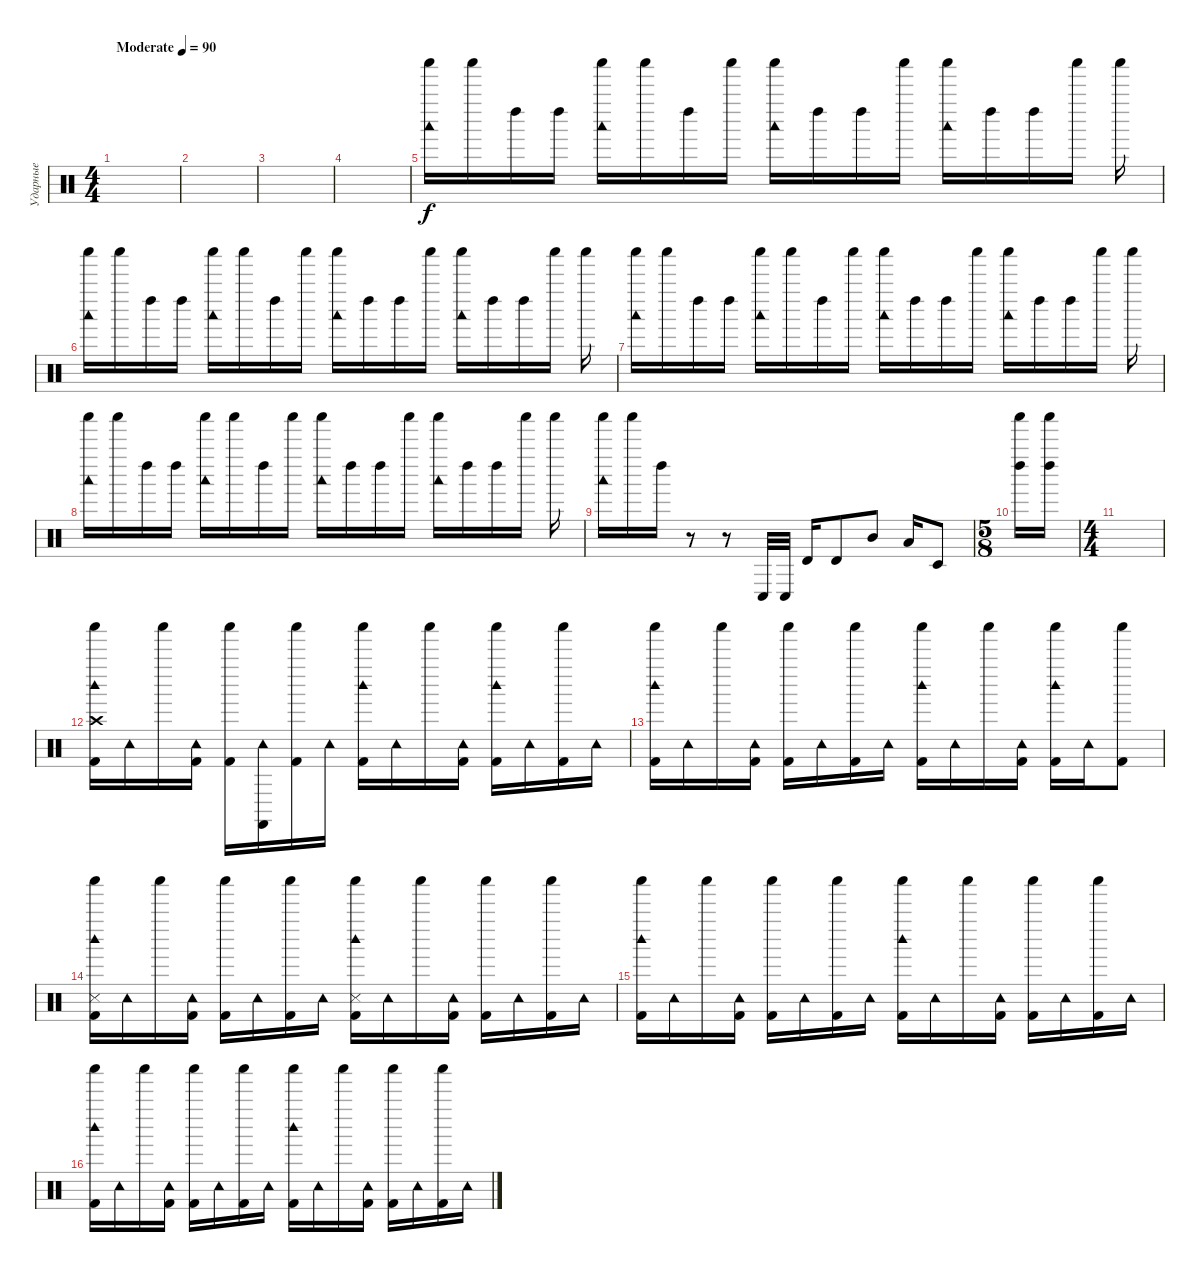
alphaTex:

\track ("Ударные" "Ударные") {instrument percussion}
\staff {score}
\articulation defaults
\ts (4 4)
\tempo (90 "Moderate")
\clef neutral
\ks c
|
|
|
|
("Woodblock low (hit)" "Shaker (hit)").16 "Shaker (hit)".16 "Left Maraca (hit)".16 "Left Maraca (hit)".16 ("Woodblock low (hit)" "Shaker (hit)").16 "Shaker (hit)".16 "Left Maraca (hit)".16 "Shaker (hit)".16 ("Woodblock low (hit)" "Shaker (hit)").16 "Left Maraca (hit)".16 "Left Maraca (hit)".16 "Shaker (hit)".16 ("Woodblock low (hit)" "Shaker (hit)").16 "Left Maraca (hit)".16 "Left Maraca (hit)".16 "Shaker (hit)".16 "Shaker (hit)".16 |
("Woodblock low (hit)" "Shaker (hit)").16 "Shaker (hit)".16 "Left Maraca (hit)".16 "Left Maraca (hit)".16 ("Woodblock low (hit)" "Shaker (hit)").16 "Shaker (hit)".16 "Left Maraca (hit)".16 "Shaker (hit)".16 ("Woodblock low (hit)" "Shaker (hit)").16 "Left Maraca (hit)".16 "Left Maraca (hit)".16 "Shaker (hit)".16 ("Woodblock low (hit)" "Shaker (hit)").16 "Left Maraca (hit)".16 "Left Maraca (hit)".16 "Shaker (hit)".16 "Shaker (hit)".16 |
("Woodblock low (hit)" "Shaker (hit)").16 "Shaker (hit)".16 "Left Maraca (hit)".16 "Left Maraca (hit)".16 ("Woodblock low (hit)" "Shaker (hit)").16 "Shaker (hit)".16 "Left Maraca (hit)".16 "Shaker (hit)".16 ("Woodblock low (hit)" "Shaker (hit)").16 "Left Maraca (hit)".16 "Left Maraca (hit)".16 "Shaker (hit)".16 ("Woodblock low (hit)" "Shaker (hit)").16 "Left Maraca (hit)".16 "Left Maraca (hit)".16 "Shaker (hit)".16 "Shaker (hit)".16 |
("Woodblock low (hit)" "Shaker (hit)").16 "Shaker (hit)".16 "Left Maraca (hit)".16 "Left Maraca (hit)".16 ("Woodblock low (hit)" "Shaker (hit)").16 "Shaker (hit)".16 "Left Maraca (hit)".16 "Shaker (hit)".16 ("Woodblock low (hit)" "Shaker (hit)").16 "Left Maraca (hit)".16 "Left Maraca (hit)".16 "Shaker (hit)".16 ("Woodblock low (hit)" "Shaker (hit)").16 "Left Maraca (hit)".16 "Left Maraca (hit)".16 "Shaker (hit)".16 "Shaker (hit)".16 |
("Woodblock low (hit)" "Shaker (hit)").16 "Shaker (hit)".16 "Left Maraca (hit)".16 r.8 r.8 "Conga low (hit)".32 "Conga low (hit)".32 "Timbale high (hit)".16 "Timbale high (hit)".8 "Mid Tom (hit)".8 "Low Tom (hit)".16 "Timbale low (hit)".8 |
\ts (5 8)
("Shaker (hit)" "Left Maraca (hit)").16 ("Shaker (hit)" "Left Maraca (hit)").16 |
\ts (4 4)
|
("Shaker (hit)" "Kick (hit) 2" "Woodblock high (hit)" "Crash high (hit)").16 "Tambourine (hit)".16 "Shaker (hit)".16 ("Tambourine (hit)" "Kick (hit) 2").16 ("Shaker (hit)" "Kick (hit) 2").16 ("Tambourine (hit)" "Castanets (hit)").16 ("Shaker (hit)" "Kick (hit) 2").16 "Tambourine (hit)".16 ("Shaker (hit)" "Kick (hit) 2" "Woodblock high (hit)").16 "Tambourine (hit)".16 "Shaker (hit)".16 ("Tambourine (hit)" "Kick (hit) 2").16 ("Shaker (hit)" "Kick (hit) 2" "Woodblock high (hit)").16 "Tambourine (hit)".16 ("Shaker (hit)" "Kick (hit) 2").16 "Tambourine (hit)".16 |
("Shaker (hit)" "Kick (hit) 2" "Woodblock high (hit)").16 "Tambourine (hit)".16 "Shaker (hit)".16 ("Tambourine (hit)" "Kick (hit) 2").16 ("Shaker (hit)" "Kick (hit) 2").16 "Tambourine (hit)".16 ("Shaker (hit)" "Kick (hit) 2").16 "Tambourine (hit)".16 ("Shaker (hit)" "Kick (hit) 2" "Woodblock high (hit)").16 "Tambourine (hit)".16 "Shaker (hit)".16 ("Tambourine (hit)" "Kick (hit) 2").16 ("Shaker (hit)" "Kick (hit) 2" "Woodblock high (hit)").16 "Tambourine (hit)".16 ("Shaker (hit)" "Kick (hit) 2").8 |
("Shaker (hit)" "Kick (hit) 2" "Woodblock high (hit)" "Snare (side stick) 3").16 "Tambourine (hit)".16 "Shaker (hit)".16 ("Tambourine (hit)" "Kick (hit) 2").16 ("Shaker (hit)" "Kick (hit) 2").16 "Tambourine (hit)".16 ("Shaker (hit)" "Kick (hit) 2").16 "Tambourine (hit)".16 ("Shaker (hit)" "Kick (hit) 2" "Woodblock high (hit)" "Snare (side stick) 3").16 "Tambourine (hit)".16 "Shaker (hit)".16 ("Tambourine (hit)" "Kick (hit) 2").16 ("Shaker (hit)" "Kick (hit) 2").16 "Tambourine (hit)".16 ("Shaker (hit)" "Kick (hit) 2").16 "Tambourine (hit)".16 |
("Shaker (hit)" "Kick (hit) 2" "Woodblock high (hit)").16 "Tambourine (hit)".16 "Shaker (hit)".16 ("Tambourine (hit)" "Kick (hit) 2").16 ("Shaker (hit)" "Kick (hit) 2").16 "Tambourine (hit)".16 ("Shaker (hit)" "Kick (hit) 2").16 "Tambourine (hit)".16 ("Shaker (hit)" "Kick (hit) 2" "Woodblock high (hit)").16 "Tambourine (hit)".16 "Shaker (hit)".16 ("Tambourine (hit)" "Kick (hit) 2").16 ("Shaker (hit)" "Kick (hit) 2").16 "Tambourine (hit)".16 ("Shaker (hit)" "Kick (hit) 2").16 "Tambourine (hit)".16 |
("Shaker (hit)" "Kick (hit) 2" "Woodblock high (hit)").16 "Tambourine (hit)".16 "Shaker (hit)".16 ("Tambourine (hit)" "Kick (hit) 2").16 ("Shaker (hit)" "Kick (hit) 2").16 "Tambourine (hit)".16 ("Shaker (hit)" "Kick (hit) 2").16 "Tambourine (hit)".16 ("Shaker (hit)" "Kick (hit) 2" "Woodblock high (hit)").16 "Tambourine (hit)".16 "Shaker (hit)".16 ("Tambourine (hit)" "Kick (hit) 2").16 ("Shaker (hit)" "Kick (hit) 2").16 "Tambourine (hit)".16 ("Shaker (hit)" "Kick (hit) 2").16 "Tambourine (hit)".16
